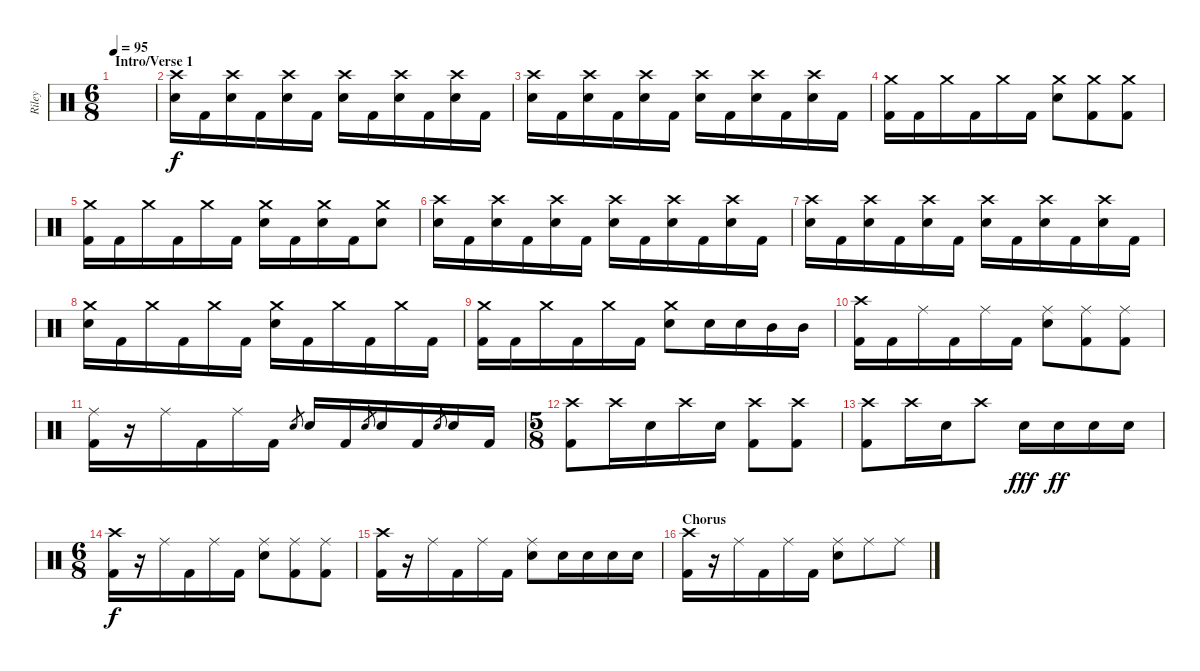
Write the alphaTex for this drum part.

\track ("Riley" "Riley") {instrument percussion}
\staff {score}
\articulation defaults
\ts (6 8)
\section ("" "Intro/Verse 1")
\tempo 95
\clef neutral
\ks c
|
("Crash high (hit)" "Electric Snare (hit)").16 "Kick (hit) 2".16 ("Crash high (hit)" "Electric Snare (hit)").16 "Kick (hit) 2".16 ("Crash high (hit)" "Electric Snare (hit)").16 "Kick (hit) 2".16 ("Crash high (hit)" "Electric Snare (hit)").16 "Kick (hit) 2".16 ("Crash high (hit)" "Electric Snare (hit)").16 "Kick (hit) 2".16 ("Crash high (hit)" "Electric Snare (hit)").16 "Kick (hit) 2".16 |
("Crash high (hit)" "Electric Snare (hit)").16 "Kick (hit) 2".16 ("Crash high (hit)" "Electric Snare (hit)").16 "Kick (hit) 2".16 ("Crash high (hit)" "Electric Snare (hit)").16 "Kick (hit) 2".16 ("Crash high (hit)" "Electric Snare (hit)").16 "Kick (hit) 2".16 ("Crash high (hit)" "Electric Snare (hit)").16 "Kick (hit) 2".16 ("Crash high (hit)" "Electric Snare (hit)").16 "Kick (hit) 2".16 |
("Crash medium (hit)" "Kick (hit) 2").16 "Kick (hit) 2".16 "Crash medium (hit)".16 "Kick (hit) 2".16 "Crash medium (hit)".16 "Kick (hit) 2".16 ("Crash medium (hit)" "Electric Snare (hit)").8 ("Crash medium (hit)" "Kick (hit) 2").8 ("Crash medium (hit)" "Kick (hit) 2").8 |
("Crash medium (hit)" "Kick (hit) 2").16 "Kick (hit) 2".16 "Crash medium (hit)".16 "Kick (hit) 2".16 "Crash medium (hit)".16 "Kick (hit) 2".16 ("Crash medium (hit)" "Electric Snare (hit)").16 "Kick (hit) 2".16 ("Crash medium (hit)" "Electric Snare (hit)").16 "Kick (hit) 2".16 ("Crash medium (hit)" "Electric Snare (hit)").8 |
("Crash high (hit)" "Electric Snare (hit)").16 "Kick (hit) 2".16 ("Crash high (hit)" "Electric Snare (hit)").16 "Kick (hit) 2".16 ("Crash high (hit)" "Electric Snare (hit)").16 "Kick (hit) 2".16 ("Crash high (hit)" "Electric Snare (hit)").16 "Kick (hit) 2".16 ("Crash high (hit)" "Electric Snare (hit)").16 "Kick (hit) 2".16 ("Crash high (hit)" "Electric Snare (hit)").16 "Kick (hit) 2".16 |
("Crash high (hit)" "Electric Snare (hit)").16 "Kick (hit) 2".16 ("Crash high (hit)" "Electric Snare (hit)").16 "Kick (hit) 2".16 ("Crash high (hit)" "Electric Snare (hit)").16 "Kick (hit) 2".16 ("Crash high (hit)" "Electric Snare (hit)").16 "Kick (hit) 2".16 ("Crash high (hit)" "Electric Snare (hit)").16 "Kick (hit) 2".16 ("Crash high (hit)" "Electric Snare (hit)").16 "Kick (hit) 2".16 |
("Crash medium (hit)" "Electric Snare (hit)").16 "Kick (hit) 2".16 "Crash medium (hit)".16 "Kick (hit) 2".16 "Crash medium (hit)".16 "Kick (hit) 2".16 ("Crash medium (hit)" "Electric Snare (hit)").16 "Kick (hit) 2".16 "Crash medium (hit)".16 "Kick (hit) 2".16 "Crash medium (hit)".16 "Kick (hit) 2".16 |
("Crash medium (hit)" "Kick (hit) 2").16 "Kick (hit) 2".16 "Crash medium (hit)".16 "Kick (hit) 2".16 "Crash medium (hit)".16 "Kick (hit) 2".16 ("Crash medium (hit)" "Electric Snare (hit)").8 "Electric Snare (hit)".16 "Electric Snare (hit)".16 "Mid Tom (hit)".16 "Mid Tom (hit)".16 |
("Crash high (hit)" "Kick (hit) 2").16 "Kick (hit) 2".16 "Ride (middle)".16 "Kick (hit) 2".16 "Ride (middle)".16 "Kick (hit) 2".16 ("Ride (middle)" "Electric Snare (hit)").8 ("Ride (middle)" "Kick (hit) 2").8 ("Ride (middle)" "Kick (hit) 2").8 |
("Ride (middle)" "Kick (hit) 2").16 r.16 "Ride (middle)".16 "Kick (hit) 2".16 "Ride (middle)".16 "Kick (hit) 2".16 "Electric Snare (hit)".8{gr} "Electric Snare (hit)".16 "Kick (hit) 2".16 "Electric Snare (hit)".8{gr} "Electric Snare (hit)".16 "Kick (hit) 2".16 "Electric Snare (hit)".8{gr} "Electric Snare (hit)".16 "Kick (hit) 2".16 |
\ts (5 8)
("Crash high (hit)" "Kick (hit) 2").8 "Crash high (hit)".16 "Electric Snare (hit)".16 "Crash high (hit)".16 "Electric Snare (hit)".16 ("Crash high (hit)" "Kick (hit) 2").8 ("Crash high (hit)" "Kick (hit) 2").8 |
("Crash high (hit)" "Kick (hit) 2").8 "Crash high (hit)".16 "Electric Snare (hit)".16 "Crash high (hit)".8 "Electric Snare (hit)".16{dy fff} "Electric Snare (hit)".16{dy ff} "Electric Snare (hit)".16 "Electric Snare (hit)".16 |
\ts (6 8)
("Crash high (hit)" "Kick (hit) 2").16{dy f} r.16 "Ride (middle)".16 "Kick (hit) 2".16 "Ride (middle)".16 "Kick (hit) 2".16 ("Ride (middle)" "Electric Snare (hit)").8 ("Ride (middle)" "Kick (hit) 2").8 ("Ride (middle)" "Kick (hit) 2").8 |
("Crash high (hit)" "Kick (hit) 2").16 r.16 "Ride (middle)".16 "Kick (hit) 2".16 "Ride (middle)".16 "Kick (hit) 2".16 ("Ride (middle)" "Electric Snare (hit)").8 "Electric Snare (hit)".16 "Electric Snare (hit)".16 "Electric Snare (hit)".16 "Electric Snare (hit)".16 |
\section ("" "Chorus")
("Crash high (hit)" "Kick (hit) 2").16 r.16 "Ride (middle)".16 "Kick (hit) 2".16 "Ride (middle)".16 "Kick (hit) 2".16 ("Ride (middle)" "Electric Snare (hit)").8 "Ride (middle)".8 "Ride (middle)".8
